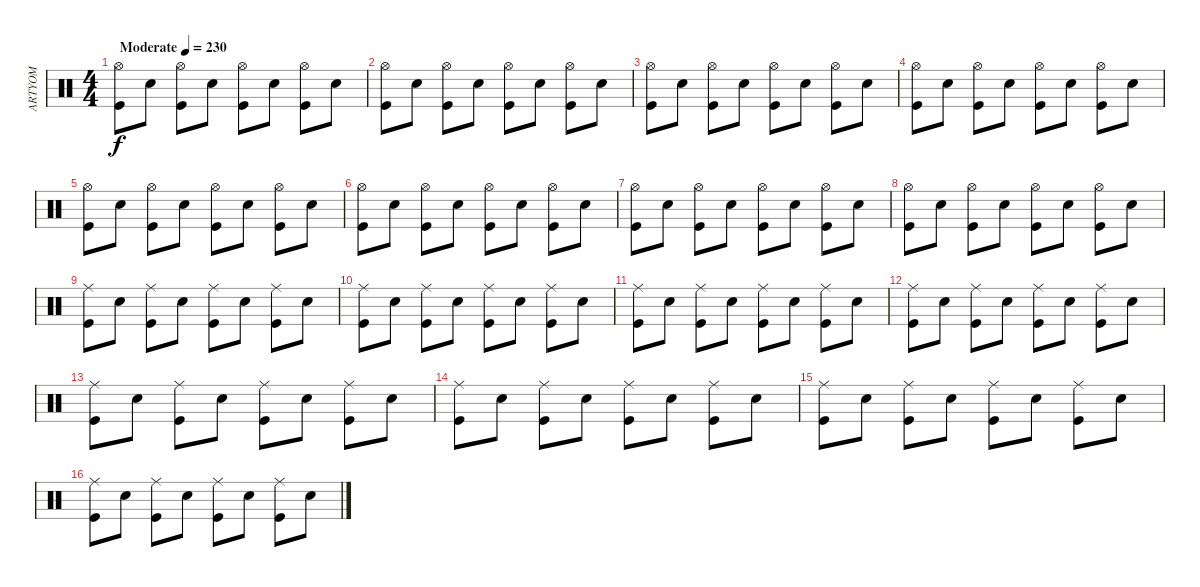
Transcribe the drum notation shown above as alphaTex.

\track ("ARTYOM" "ARTYOM") {instrument percussion}
\staff {score}
\articulation defaults
\ts (4 4)
\tempo (230 "Moderate")
\clef neutral
\ks c
("Kick (hit)" "Hi-Hat (open)").8{dy f} "Snare (hit) 2".8 ("Kick (hit)" "Hi-Hat (open)").8 "Snare (hit) 2".8 ("Kick (hit)" "Hi-Hat (open)").8 "Snare (hit) 2".8 ("Kick (hit)" "Hi-Hat (open)").8 "Snare (hit) 2".8 |
("Kick (hit)" "Hi-Hat (open)").8 "Snare (hit) 2".8 ("Kick (hit)" "Hi-Hat (open)").8 "Snare (hit) 2".8 ("Kick (hit)" "Hi-Hat (open)").8 "Snare (hit) 2".8 ("Kick (hit)" "Hi-Hat (open)").8 "Snare (hit) 2".8 |
("Kick (hit)" "Hi-Hat (open)").8 "Snare (hit) 2".8 ("Kick (hit)" "Hi-Hat (open)").8 "Snare (hit) 2".8 ("Kick (hit)" "Hi-Hat (open)").8 "Snare (hit) 2".8 ("Kick (hit)" "Hi-Hat (open)").8 "Snare (hit) 2".8 |
("Kick (hit)" "Hi-Hat (open)").8 "Snare (hit) 2".8 ("Kick (hit)" "Hi-Hat (open)").8 "Snare (hit) 2".8 ("Kick (hit)" "Hi-Hat (open)").8 "Snare (hit) 2".8 ("Kick (hit)" "Hi-Hat (open)").8 "Snare (hit) 2".8 |
("Kick (hit)" "Hi-Hat (open)").8 "Snare (hit) 2".8 ("Kick (hit)" "Hi-Hat (open)").8 "Snare (hit) 2".8 ("Kick (hit)" "Hi-Hat (open)").8 "Snare (hit) 2".8 ("Kick (hit)" "Hi-Hat (open)").8 "Snare (hit) 2".8 |
("Kick (hit)" "Hi-Hat (open)").8 "Snare (hit) 2".8 ("Kick (hit)" "Hi-Hat (open)").8 "Snare (hit) 2".8 ("Kick (hit)" "Hi-Hat (open)").8 "Snare (hit) 2".8 ("Kick (hit)" "Hi-Hat (open)").8 "Snare (hit) 2".8 |
("Kick (hit)" "Hi-Hat (open)").8 "Snare (hit) 2".8 ("Kick (hit)" "Hi-Hat (open)").8 "Snare (hit) 2".8 ("Kick (hit)" "Hi-Hat (open)").8 "Snare (hit) 2".8 ("Kick (hit)" "Hi-Hat (open)").8 "Snare (hit) 2".8 |
("Kick (hit)" "Hi-Hat (open)").8 "Snare (hit) 2".8 ("Kick (hit)" "Hi-Hat (open)").8 "Snare (hit) 2".8 ("Kick (hit)" "Hi-Hat (open)").8 "Snare (hit) 2".8 ("Kick (hit)" "Hi-Hat (open)").8 "Snare (hit) 2".8 |
("Kick (hit)" "Ride (middle)").8 "Snare (hit) 2".8 ("Kick (hit)" "Ride (middle)").8 "Snare (hit) 2".8 ("Kick (hit)" "Ride (middle)").8 "Snare (hit) 2".8 ("Kick (hit)" "Ride (middle)").8 "Snare (hit) 2".8 |
("Kick (hit)" "Ride (middle)").8 "Snare (hit) 2".8 ("Kick (hit)" "Ride (middle)").8 "Snare (hit) 2".8 ("Kick (hit)" "Ride (middle)").8 "Snare (hit) 2".8 ("Kick (hit)" "Ride (middle)").8 "Snare (hit) 2".8 |
("Kick (hit)" "Ride (middle)").8 "Snare (hit) 2".8 ("Kick (hit)" "Ride (middle)").8 "Snare (hit) 2".8 ("Kick (hit)" "Ride (middle)").8 "Snare (hit) 2".8 ("Kick (hit)" "Ride (middle)").8 "Snare (hit) 2".8 |
("Kick (hit)" "Ride (middle)").8 "Snare (hit) 2".8 ("Kick (hit)" "Ride (middle)").8 "Snare (hit) 2".8 ("Kick (hit)" "Ride (middle)").8 "Snare (hit) 2".8 ("Kick (hit)" "Ride (middle)").8 "Snare (hit) 2".8 |
("Kick (hit)" "Ride (middle)").8 "Snare (hit) 2".8 ("Kick (hit)" "Ride (middle)").8 "Snare (hit) 2".8 ("Kick (hit)" "Ride (middle)").8 "Snare (hit) 2".8 ("Kick (hit)" "Ride (middle)").8 "Snare (hit) 2".8 |
("Kick (hit)" "Ride (middle)").8 "Snare (hit) 2".8 ("Kick (hit)" "Ride (middle)").8 "Snare (hit) 2".8 ("Kick (hit)" "Ride (middle)").8 "Snare (hit) 2".8 ("Kick (hit)" "Ride (middle)").8 "Snare (hit) 2".8 |
("Kick (hit)" "Ride (middle)").8 "Snare (hit) 2".8 ("Kick (hit)" "Ride (middle)").8 "Snare (hit) 2".8 ("Kick (hit)" "Ride (middle)").8 "Snare (hit) 2".8 ("Kick (hit)" "Ride (middle)").8 "Snare (hit) 2".8 |
("Kick (hit)" "Ride (middle)").8 "Snare (hit) 2".8 ("Kick (hit)" "Ride (middle)").8 "Snare (hit) 2".8 ("Kick (hit)" "Ride (middle)").8 "Snare (hit) 2".8 ("Kick (hit)" "Ride (middle)").8 "Snare (hit) 2".8
